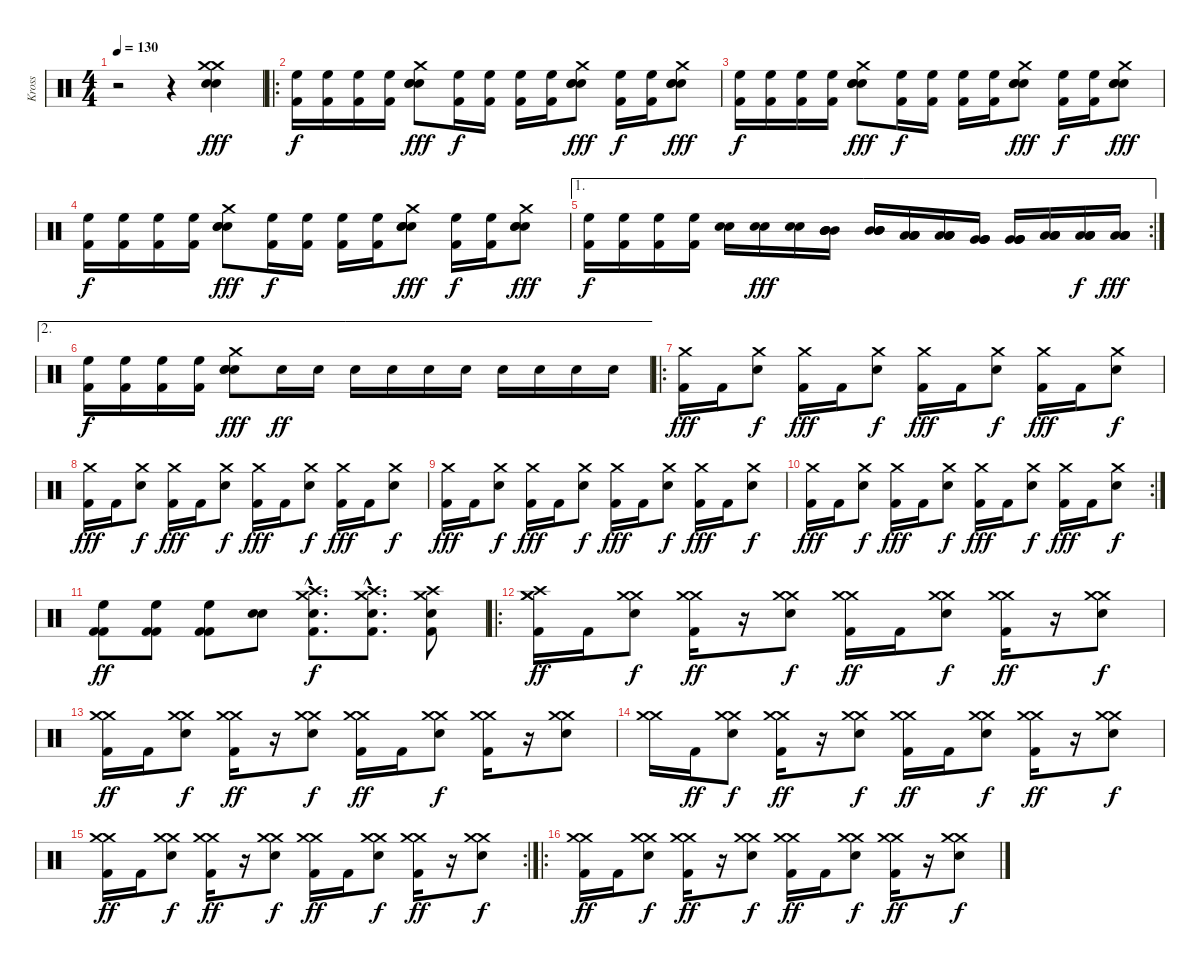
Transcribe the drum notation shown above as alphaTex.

\track ("Kross" "Kross") {instrument percussion}
\staff {score}
\articulation defaults
\ts (4 4)
\tempo 130
\clef neutral
\ks c
r.2{dy fff} r.4 ("Crash medium (hit)" "Crash medium (hit)" "Snare (hit) 2" "Snare (hit) 2").4 |
\ro
("High Floor Tom (hit)" "Kick (hit) 2").16{dy f} ("High Floor Tom (hit)" "Kick (hit) 2").16 ("High Floor Tom (hit)" "Kick (hit) 2").16 ("High Floor Tom (hit)" "Kick (hit) 2").16 ("Crash medium (hit)" "Snare (hit) 2" "Snare (hit) 2" "Snare (hit) 2").8{dy fff} ("High Floor Tom (hit)" "Kick (hit) 2").16{dy f} ("High Floor Tom (hit)" "Kick (hit) 2").16 ("High Floor Tom (hit)" "Kick (hit) 2").16 ("High Floor Tom (hit)" "Kick (hit) 2").16 ("Crash medium (hit)" "Snare (hit) 2" "Snare (hit) 2" "Snare (hit) 2").8{dy fff} ("High Floor Tom (hit)" "Kick (hit) 2").16{dy f} ("High Floor Tom (hit)" "Kick (hit) 2").16 ("Crash medium (hit)" "Snare (hit) 2" "Snare (hit) 2" "Snare (hit) 2").8{dy fff} |
("High Floor Tom (hit)" "Kick (hit) 2").16{dy f} ("High Floor Tom (hit)" "Kick (hit) 2").16 ("High Floor Tom (hit)" "Kick (hit) 2").16 ("High Floor Tom (hit)" "Kick (hit) 2").16 ("Crash medium (hit)" "Snare (hit) 2" "Snare (hit) 2" "Snare (hit) 2").8{dy fff} ("High Floor Tom (hit)" "Kick (hit) 2").16{dy f} ("High Floor Tom (hit)" "Kick (hit) 2").16 ("High Floor Tom (hit)" "Kick (hit) 2").16 ("High Floor Tom (hit)" "Kick (hit) 2").16 ("Crash medium (hit)" "Snare (hit) 2" "Snare (hit) 2" "Snare (hit) 2").8{dy fff} ("High Floor Tom (hit)" "Kick (hit) 2").16{dy f} ("High Floor Tom (hit)" "Kick (hit) 2").16 ("Crash medium (hit)" "Snare (hit) 2" "Snare (hit) 2" "Snare (hit) 2").8{dy fff} |
("High Floor Tom (hit)" "Kick (hit) 2").16{dy f} ("High Floor Tom (hit)" "Kick (hit) 2").16 ("High Floor Tom (hit)" "Kick (hit) 2").16 ("High Floor Tom (hit)" "Kick (hit) 2").16 ("Crash medium (hit)" "Snare (hit) 2" "Snare (hit) 2" "Snare (hit) 2").8{dy fff} ("High Floor Tom (hit)" "Kick (hit) 2").16{dy f} ("High Floor Tom (hit)" "Kick (hit) 2").16 ("High Floor Tom (hit)" "Kick (hit) 2").16 ("High Floor Tom (hit)" "Kick (hit) 2").16 ("Crash medium (hit)" "Snare (hit) 2" "Snare (hit) 2" "Snare (hit) 2").8{dy fff} ("High Floor Tom (hit)" "Kick (hit) 2").16{dy f} ("High Floor Tom (hit)" "Kick (hit) 2").16 ("Crash medium (hit)" "Snare (hit) 2" "Snare (hit) 2" "Snare (hit) 2").8{dy fff} |
\ae 1
\rc 2
("High Floor Tom (hit)" "Kick (hit) 2").16{dy f} ("High Floor Tom (hit)" "Kick (hit) 2").16 ("High Floor Tom (hit)" "Kick (hit) 2").16 ("High Floor Tom (hit)" "Kick (hit) 2").16 ("Snare (hit) 2" "Snare (hit) 2").16 ("Snare (hit) 2" "Snare (hit) 2").16{dy fff} ("Snare (hit) 2" "Snare (hit) 2").16 ("Mid Tom (hit)" "Mid Tom (hit)" "Mid Tom (hit)" "Mid Tom (hit)").16 ("Mid Tom (hit)" "Mid Tom (hit)" "Mid Tom (hit)" "Mid Tom (hit)").16 ("Low Tom (hit)" "Low Tom (hit)" "Low Tom (hit)" "Low Tom (hit)").16 ("Low Tom (hit)" "Low Tom (hit)" "Low Tom (hit)" "Low Tom (hit)").16 ("Very Low Tom (hit)" "Very Low Tom (hit)" "Very Low Tom (hit)" "Very Low Tom (hit)").16 ("Very Low Tom (hit)" "Very Low Tom (hit)" "Very Low Tom (hit)" "Very Low Tom (hit)").16 ("Low Floor Tom (hit)" "Low Floor Tom (hit)" "Low Floor Tom (hit)" "Low Floor Tom (hit)").16 ("Low Floor Tom (hit)" "Low Floor Tom (hit)" "Low Floor Tom (hit)" "Low Floor Tom (hit)").16{dy f} ("Low Floor Tom (hit)" "Low Floor Tom (hit)" "Low Floor Tom (hit)" "Low Floor Tom (hit)").16{dy fff} |
\ae 2
("High Floor Tom (hit)" "Kick (hit) 2").16{dy f} ("High Floor Tom (hit)" "Kick (hit) 2").16 ("High Floor Tom (hit)" "Kick (hit) 2").16 ("High Floor Tom (hit)" "Kick (hit) 2").16 ("Crash medium (hit)" "Snare (hit) 2" "Snare (hit) 2" "Snare (hit) 2").8{dy fff} "Snare (hit) 2".16{dy ff} "Snare (hit) 2".16 "Snare (hit) 2".16 "Snare (hit) 2".16 "Snare (hit) 2".16 "Snare (hit) 2".16 "Snare (hit) 2".16 "Snare (hit) 2".16 "Snare (hit) 2".16 "Snare (hit) 2".16 |
\ro
("Kick (hit) 2" "Crash medium (hit)").16{dy fff} "Kick (hit) 2".16 ("Crash medium (hit)" "Snare (hit) 2").8{dy f} ("Kick (hit) 2" "Crash medium (hit)").16{dy fff} "Kick (hit) 2".16 ("Crash medium (hit)" "Snare (hit) 2").8{dy f} ("Kick (hit) 2" "Crash medium (hit)").16{dy fff} "Kick (hit) 2".16 ("Crash medium (hit)" "Snare (hit) 2").8{dy f} ("Kick (hit) 2" "Crash medium (hit)").16{dy fff} "Kick (hit) 2".16 ("Crash medium (hit)" "Snare (hit) 2").8{dy f} |
("Kick (hit) 2" "Crash medium (hit)").16{dy fff} "Kick (hit) 2".16 ("Crash medium (hit)" "Snare (hit) 2").8{dy f} ("Kick (hit) 2" "Crash medium (hit)").16{dy fff} "Kick (hit) 2".16 ("Crash medium (hit)" "Snare (hit) 2").8{dy f} ("Kick (hit) 2" "Crash medium (hit)").16{dy fff} "Kick (hit) 2".16 ("Crash medium (hit)" "Snare (hit) 2").8{dy f} ("Kick (hit) 2" "Crash medium (hit)").16{dy fff} "Kick (hit) 2".16 ("Crash medium (hit)" "Snare (hit) 2").8{dy f} |
("Kick (hit) 2" "Crash medium (hit)").16{dy fff} "Kick (hit) 2".16 ("Crash medium (hit)" "Snare (hit) 2").8{dy f} ("Kick (hit) 2" "Crash medium (hit)").16{dy fff} "Kick (hit) 2".16 ("Crash medium (hit)" "Snare (hit) 2").8{dy f} ("Kick (hit) 2" "Crash medium (hit)").16{dy fff} "Kick (hit) 2".16 ("Crash medium (hit)" "Snare (hit) 2").8{dy f} ("Kick (hit) 2" "Crash medium (hit)").16{dy fff} "Kick (hit) 2".16 ("Crash medium (hit)" "Snare (hit) 2").8{dy f} |
\rc 2
("Kick (hit) 2" "Crash medium (hit)").16{dy fff} "Kick (hit) 2".16 ("Crash medium (hit)" "Snare (hit) 2").8{dy f} ("Kick (hit) 2" "Crash medium (hit)").16{dy fff} "Kick (hit) 2".16 ("Crash medium (hit)" "Snare (hit) 2").8{dy f} ("Kick (hit) 2" "Crash medium (hit)").16{dy fff} "Kick (hit) 2".16 ("Crash medium (hit)" "Snare (hit) 2").8{dy f} ("Kick (hit) 2" "Crash medium (hit)").16{dy fff} "Kick (hit) 2".16 ("Crash medium (hit)" "Snare (hit) 2").8{dy f} |
("High Floor Tom (hit)" "Kick (hit) 2" "Kick (hit) 2").8{dy ff} ("High Floor Tom (hit)" "Kick (hit) 2" "Kick (hit) 2").8 ("High Floor Tom (hit)" "Kick (hit) 2" "Kick (hit) 2").8 ("Snare (hit) 2" "Snare (hit) 2").8 ("Kick (hit) 2"{hac} "Crash high (hit)"{hac} "Crash medium (hit)"{hac} "Snare (hit) 2"{hac}).8{d dy f} ("Kick (hit) 2"{hac} "Crash high (hit)"{hac} "Crash medium (hit)"{hac} "Snare (hit) 2"{hac}).8{d} ("Kick (hit) 2" "Crash high (hit)" "Crash medium (hit)" "Snare (hit) 2").8 |
\ro
("Crash high (hit)" "Kick (hit) 2" "Crash medium (hit)" "Crash medium (hit)").16{dy ff} "Kick (hit) 2".16 ("Crash medium (hit)" "Crash medium (hit)" "Snare (hit) 2").8{dy f} ("Kick (hit) 2" "Crash medium (hit)" "Crash medium (hit)").16{dy ff} r.16 ("Crash medium (hit)" "Crash medium (hit)" "Snare (hit) 2").8{dy f} ("Kick (hit) 2" "Crash medium (hit)" "Crash medium (hit)").16{dy ff} "Kick (hit) 2".16 ("Crash medium (hit)" "Crash medium (hit)" "Snare (hit) 2").8{dy f} ("Kick (hit) 2" "Crash medium (hit)" "Crash medium (hit)").16{dy ff} r.16 ("Crash medium (hit)" "Crash medium (hit)" "Snare (hit) 2").8{dy f} |
("Kick (hit) 2" "Crash medium (hit)" "Crash medium (hit)").16{dy ff} "Kick (hit) 2".16 ("Crash medium (hit)" "Crash medium (hit)" "Snare (hit) 2").8{dy f} ("Kick (hit) 2" "Crash medium (hit)" "Crash medium (hit)").16{dy ff} r.16 ("Crash medium (hit)" "Crash medium (hit)" "Snare (hit) 2").8{dy f} ("Kick (hit) 2" "Crash medium (hit)" "Crash medium (hit)").16{dy ff} "Kick (hit) 2".16 ("Crash medium (hit)" "Crash medium (hit)" "Snare (hit) 2").8{dy f} ("Kick (hit) 2" "Crash medium (hit)" "Crash medium (hit)").16 r.16 ("Crash medium (hit)" "Crash medium (hit)" "Snare (hit) 2").8 |
("Crash medium (hit)" "Crash medium (hit)").16 "Kick (hit) 2".16{dy ff} ("Crash medium (hit)" "Crash medium (hit)" "Snare (hit) 2").8{dy f} ("Kick (hit) 2" "Crash medium (hit)" "Crash medium (hit)").16{dy ff} r.16 ("Crash medium (hit)" "Crash medium (hit)" "Snare (hit) 2").8{dy f} ("Kick (hit) 2" "Crash medium (hit)" "Crash medium (hit)").16{dy ff} "Kick (hit) 2".16 ("Crash medium (hit)" "Crash medium (hit)" "Snare (hit) 2").8{dy f} ("Kick (hit) 2" "Crash medium (hit)" "Crash medium (hit)").16{dy ff} r.16 ("Crash medium (hit)" "Crash medium (hit)" "Snare (hit) 2").8{dy f} |
\rc 2
("Kick (hit) 2" "Crash medium (hit)" "Crash medium (hit)").16{dy ff} "Kick (hit) 2".16 ("Crash medium (hit)" "Crash medium (hit)" "Snare (hit) 2").8{dy f} ("Kick (hit) 2" "Crash medium (hit)" "Crash medium (hit)").16{dy ff} r.16 ("Crash medium (hit)" "Crash medium (hit)" "Snare (hit) 2").8{dy f} ("Kick (hit) 2" "Crash medium (hit)" "Crash medium (hit)").16{dy ff} "Kick (hit) 2".16 ("Crash medium (hit)" "Crash medium (hit)" "Snare (hit) 2").8{dy f} ("Kick (hit) 2" "Crash medium (hit)" "Crash medium (hit)").16{dy ff} r.16 ("Crash medium (hit)" "Crash medium (hit)" "Snare (hit) 2").8{dy f} |
\ro
("Kick (hit) 2" "Crash medium (hit)" "Crash medium (hit)").16{dy ff} "Kick (hit) 2".16 ("Crash medium (hit)" "Crash medium (hit)" "Snare (hit) 2").8{dy f} ("Kick (hit) 2" "Crash medium (hit)" "Crash medium (hit)").16{dy ff} r.16 ("Crash medium (hit)" "Crash medium (hit)" "Snare (hit) 2").8{dy f} ("Kick (hit) 2" "Crash medium (hit)" "Crash medium (hit)").16{dy ff} "Kick (hit) 2".16 ("Crash medium (hit)" "Crash medium (hit)" "Snare (hit) 2").8{dy f} ("Kick (hit) 2" "Crash medium (hit)" "Crash medium (hit)").16{dy ff} r.16 ("Crash medium (hit)" "Crash medium (hit)" "Snare (hit) 2").8{dy f}
